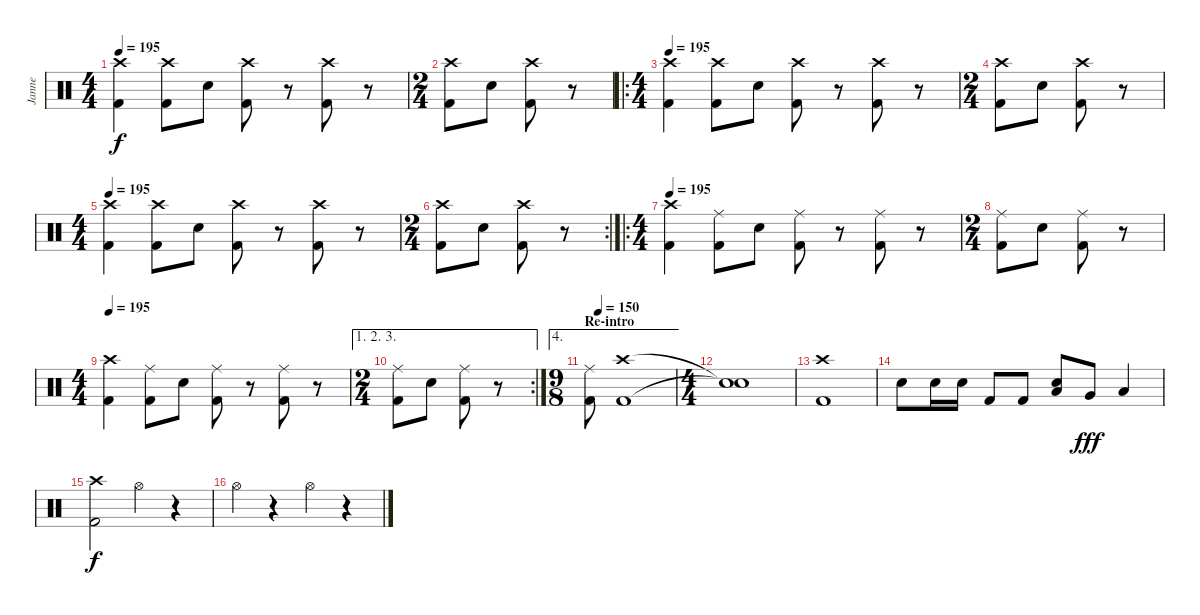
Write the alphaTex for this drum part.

\track ("Janne" "Janne") {instrument percussion}
\staff {score}
\articulation defaults
\ts (4 4)
\tempo 195
\clef neutral
\ks c
("Crash high (hit)" "Kick (hit) 2").4{dy f} ("Crash high (hit)" "Kick (hit) 2").8 "Electric Snare (hit)".8 ("Crash high (hit)" "Kick (hit) 2").8 r.8 ("Crash high (hit)" "Kick (hit) 2").8 r.8 |
\ts (2 4)
("Crash high (hit)" "Kick (hit) 2").8 "Electric Snare (hit)".8 ("Crash high (hit)" "Kick (hit) 2").8 r.8 |
\ro
\ts (4 4)
\tempo 195
("Crash high (hit)" "Kick (hit) 2").4 ("Crash high (hit)" "Kick (hit) 2").8 "Electric Snare (hit)".8 ("Crash high (hit)" "Kick (hit) 2").8 r.8 ("Crash high (hit)" "Kick (hit) 2").8 r.8 |
\ts (2 4)
("Crash high (hit)" "Kick (hit) 2").8 "Electric Snare (hit)".8 ("Crash high (hit)" "Kick (hit) 2").8 r.8 |
\ts (4 4)
\tempo 195
("Crash high (hit)" "Kick (hit) 2").4 ("Crash high (hit)" "Kick (hit) 2").8 "Electric Snare (hit)".8 ("Crash high (hit)" "Kick (hit) 2").8 r.8 ("Crash high (hit)" "Kick (hit) 2").8 r.8 |
\rc 2
\ts (2 4)
("Crash high (hit)" "Kick (hit) 2").8 "Electric Snare (hit)".8 ("Crash high (hit)" "Kick (hit) 2").8 r.8 |
\ro
\ts (4 4)
\tempo 195
("Crash high (hit)" "Kick (hit) 2").4 ("Ride (middle)" "Kick (hit) 2").8 "Electric Snare (hit)".8 ("Ride (middle)" "Kick (hit) 2").8 r.8 ("Ride (middle)" "Kick (hit) 2").8 r.8 |
\ts (2 4)
("Ride (middle)" "Kick (hit) 2").8 "Electric Snare (hit)".8 ("Ride (middle)" "Kick (hit) 2").8 r.8 |
\ts (4 4)
\tempo 195
("Crash high (hit)" "Kick (hit) 2").4 ("Ride (middle)" "Kick (hit) 2").8 "Electric Snare (hit)".8 ("Ride (middle)" "Kick (hit) 2").8 r.8 ("Ride (middle)" "Kick (hit) 2").8 r.8 |
\ae (1 2 3)
\rc 2
\ts (2 4)
("Ride (middle)" "Kick (hit) 2").8 "Electric Snare (hit)".8 ("Ride (middle)" "Kick (hit) 2").8 r.8 |
\ae 4
\ts (9 8)
\section ("" "Re-intro")
\tempo (150 0.1111111111111111)
("Ride (middle)" "Kick (hit) 2").8 ("Crash high (hit)" "Kick (hit) 2").1 |
\ts (4 4)
("Snare (hit)"{t} "Snare (hit)"{t}).1 |
("Crash high (hit)" "Kick (hit) 2").1 |
"Electric Snare (hit)".8 "Electric Snare (hit)".16 "Electric Snare (hit)".16 "Kick (hit) 2".8 "Kick (hit) 2".8 ("Low Tom (hit)" "Electric Snare (hit)").8 "Very Low Tom (hit)".8{dy fff} "Low Floor Tom (hit)".4 |
("Crash high (hit)" "Kick (hit) 2").2{dy f} "Hi-Hat (open)".4 r.4 |
"Hi-Hat (open)".4 r.4 "Hi-Hat (open)".4 r.4
